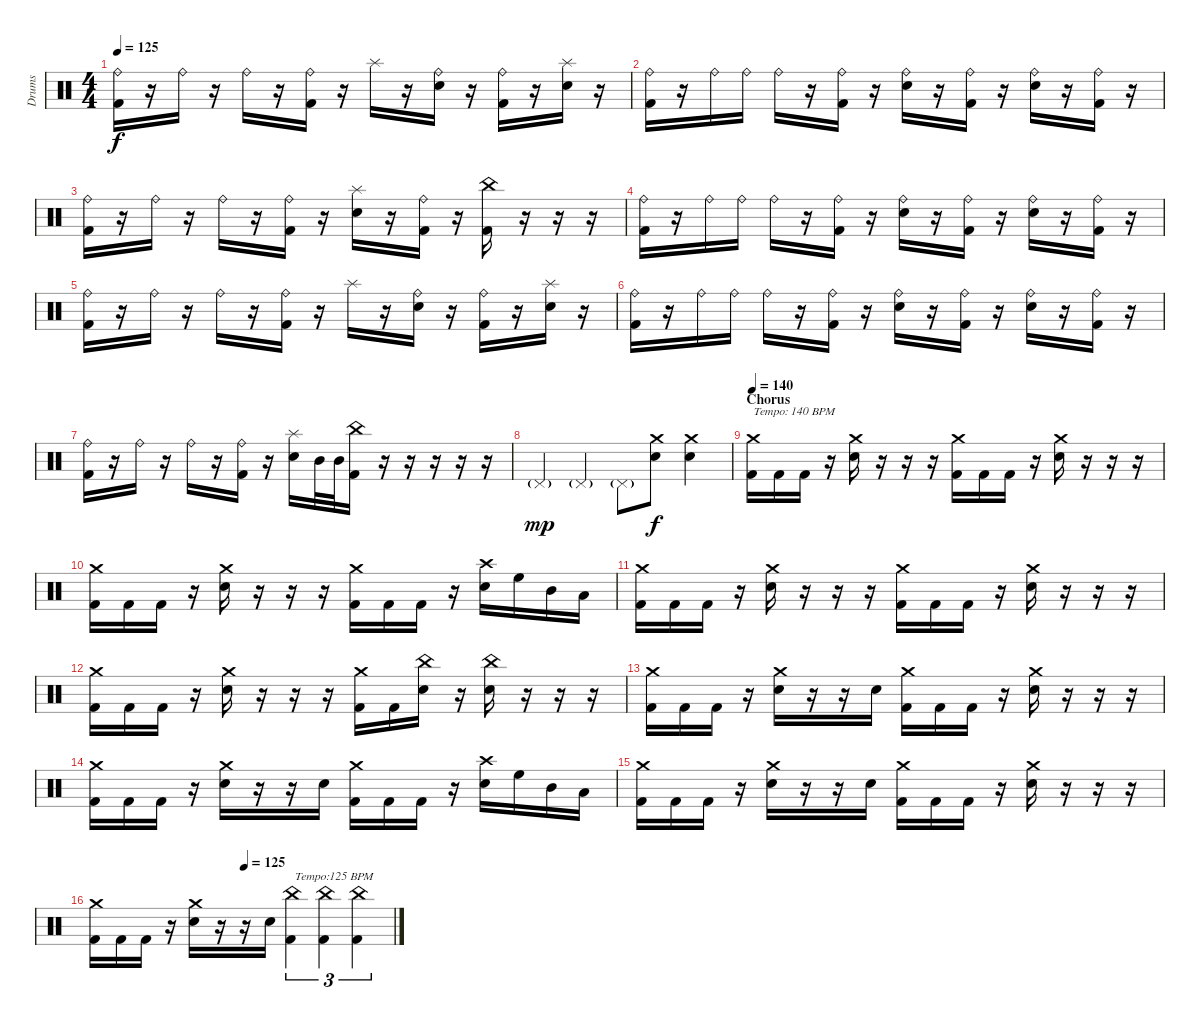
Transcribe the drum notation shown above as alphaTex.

\track ("Drums" "Drums") {instrument percussion}
\staff {score}
\articulation defaults
\ts (4 4)
\tempo 125
\clef neutral
\ks c
("Ride (bell)" "Kick (hit) 2").16{dy f} r.16 "Ride (bell)".16 r.16 "Ride (bell)".16 r.16 ("Ride (bell)" "Kick (hit) 2").16 r.16 "Splash (hit)".16 r.16 ("Ride (bell)" "Electric Snare (hit)").16 r.16 ("Ride (bell)" "Kick (hit) 2").16 r.16 ("Splash (hit)" "Electric Snare (hit)").16 r.16 |
("Ride (bell)" "Kick (hit) 2").16 r.16 "Ride (bell)".16 "Ride (bell)".16 "Ride (bell)".16 r.16 ("Ride (bell)" "Kick (hit) 2").16 r.16 ("Ride (bell)" "Electric Snare (hit)").16 r.16 ("Ride (bell)" "Kick (hit) 2").16 r.16 ("Ride (bell)" "Electric Snare (hit)").16 r.16 ("Ride (bell)" "Kick (hit) 2").16 r.16 |
("Ride (bell)" "Kick (hit) 2").16 r.16 "Ride (bell)".16 r.16 "Ride (bell)".16 r.16 ("Ride (bell)" "Kick (hit) 2").16 r.16 ("Splash (hit)" "Electric Snare (hit)").16 r.16 ("Ride (bell)" "Kick (hit) 2").16 r.16 ("China (hit)" "Kick (hit) 2").16 r.16 r.16 r.16 |
("Ride (bell)" "Kick (hit) 2").16 r.16 "Ride (bell)".16 "Ride (bell)".16 "Ride (bell)".16 r.16 ("Ride (bell)" "Kick (hit) 2").16 r.16 ("Ride (bell)" "Electric Snare (hit)").16 r.16 ("Ride (bell)" "Kick (hit) 2").16 r.16 ("Ride (bell)" "Electric Snare (hit)").16 r.16 ("Ride (bell)" "Kick (hit) 2").16 r.16 |
("Ride (bell)" "Kick (hit) 2").16 r.16 "Ride (bell)".16 r.16 "Ride (bell)".16 r.16 ("Ride (bell)" "Kick (hit) 2").16 r.16 "Splash (hit)".16 r.16 ("Ride (bell)" "Electric Snare (hit)").16 r.16 ("Ride (bell)" "Kick (hit) 2").16 r.16 ("Splash (hit)" "Electric Snare (hit)").16 r.16 |
("Ride (bell)" "Kick (hit) 2").16 r.16 "Ride (bell)".16 "Ride (bell)".16 "Ride (bell)".16 r.16 ("Ride (bell)" "Kick (hit) 2").16 r.16 ("Ride (bell)" "Electric Snare (hit)").16 r.16 ("Ride (bell)" "Kick (hit) 2").16 r.16 ("Ride (bell)" "Electric Snare (hit)").16 r.16 ("Ride (bell)" "Kick (hit) 2").16 r.16 |
("Ride (bell)" "Kick (hit) 2").16 r.16 "Ride (bell)".16 r.16 "Ride (bell)".16 r.16 ("Ride (bell)" "Kick (hit) 2").16 r.16 ("Splash (hit)" "Electric Snare (hit)").16 "Mid Tom (hit)".32 "Mid Tom (hit)".32 ("China (hit)" "Kick (hit) 2").16 r.16 r.16 r.16 r.16 r.16 |
"Pedal Hi-Hat (hit)"{g}.4{dy mp} "Pedal Hi-Hat (hit)"{g}.4 "Pedal Hi-Hat (hit)"{g}.8 ("Crash medium (hit)" "Electric Snare (hit)").8{dy f} ("Crash medium (hit)" "Electric Snare (hit)").4 |
\section ("" "Chorus")
\tempo 140
("Crash medium (hit)" "Kick (hit) 2").16{txt "Tempo: 140 BPM" volume 14} "Kick (hit) 2".16 "Kick (hit) 2".16 r.16 ("Crash medium (hit)" "Electric Snare (hit)").16 r.16 r.16 r.16 ("Crash medium (hit)" "Kick (hit) 2").16 "Kick (hit) 2".16 "Kick (hit) 2".16 r.16 ("Crash medium (hit)" "Electric Snare (hit)").16 r.16 r.16 r.16 |
("Crash medium (hit)" "Kick (hit) 2").16 "Kick (hit) 2".16 "Kick (hit) 2".16 r.16 ("Crash medium (hit)" "Electric Snare (hit)").16 r.16 r.16 r.16 ("Crash medium (hit)" "Kick (hit) 2").16 "Kick (hit) 2".16 "Kick (hit) 2".16 r.16 ("Crash high (hit)" "Electric Snare (hit)").16 "High Floor Tom (hit)".16 "Mid Tom (hit)".16 "Low Tom (hit)".16 |
("Crash medium (hit)" "Kick (hit) 2").16 "Kick (hit) 2".16 "Kick (hit) 2".16 r.16 ("Crash medium (hit)" "Electric Snare (hit)").16 r.16 r.16 r.16 ("Crash medium (hit)" "Kick (hit) 2").16 "Kick (hit) 2".16 "Kick (hit) 2".16 r.16 ("Crash medium (hit)" "Electric Snare (hit)").16 r.16 r.16 r.16 |
("Crash medium (hit)" "Kick (hit) 2").16 "Kick (hit) 2".16 "Kick (hit) 2".16 r.16 ("Crash medium (hit)" "Electric Snare (hit)").16 r.16 r.16 r.16 ("Crash medium (hit)" "Kick (hit) 2").16 "Kick (hit) 2".16 ("China (hit)" "Electric Snare (hit)").16 r.16 ("China (hit)" "Electric Snare (hit)").16 r.16 r.16 r.16 |
("Crash medium (hit)" "Kick (hit) 2").16 "Kick (hit) 2".16 "Kick (hit) 2".16 r.16 ("Crash medium (hit)" "Electric Snare (hit)").16 r.16 r.16 "Electric Snare (hit)".16 ("Crash medium (hit)" "Kick (hit) 2").16 "Kick (hit) 2".16 "Kick (hit) 2".16 r.16 ("Crash medium (hit)" "Electric Snare (hit)").16 r.16 r.16 r.16 |
("Crash medium (hit)" "Kick (hit) 2").16 "Kick (hit) 2".16 "Kick (hit) 2".16 r.16 ("Crash medium (hit)" "Electric Snare (hit)").16 r.16 r.16 "Electric Snare (hit)".16 ("Crash medium (hit)" "Kick (hit) 2").16 "Kick (hit) 2".16 "Kick (hit) 2".16 r.16 ("Crash high (hit)" "Electric Snare (hit)").16 "High Floor Tom (hit)".16 "Mid Tom (hit)".16 "Low Tom (hit)".16 |
("Crash medium (hit)" "Kick (hit) 2").16 "Kick (hit) 2".16 "Kick (hit) 2".16 r.16 ("Crash medium (hit)" "Electric Snare (hit)").16 r.16 r.16 "Electric Snare (hit)".16 ("Crash medium (hit)" "Kick (hit) 2").16 "Kick (hit) 2".16 "Kick (hit) 2".16 r.16 ("Crash medium (hit)" "Electric Snare (hit)").16 r.16 r.16 r.16 |
\tempo (125 0.5)
("Crash medium (hit)" "Kick (hit) 2").16 "Kick (hit) 2".16 "Kick (hit) 2".16 r.16 ("Crash medium (hit)" "Electric Snare (hit)").16 r.16 r.16 "Electric Snare (hit)".16 ("China (hit)" "Kick (hit) 2").4{tu (3 2) txt "Tempo:125 BPM"} ("China (hit)" "Kick (hit) 2").4{tu (3 2)} ("China (hit)" "Kick (hit) 2").4{tu (3 2)}
